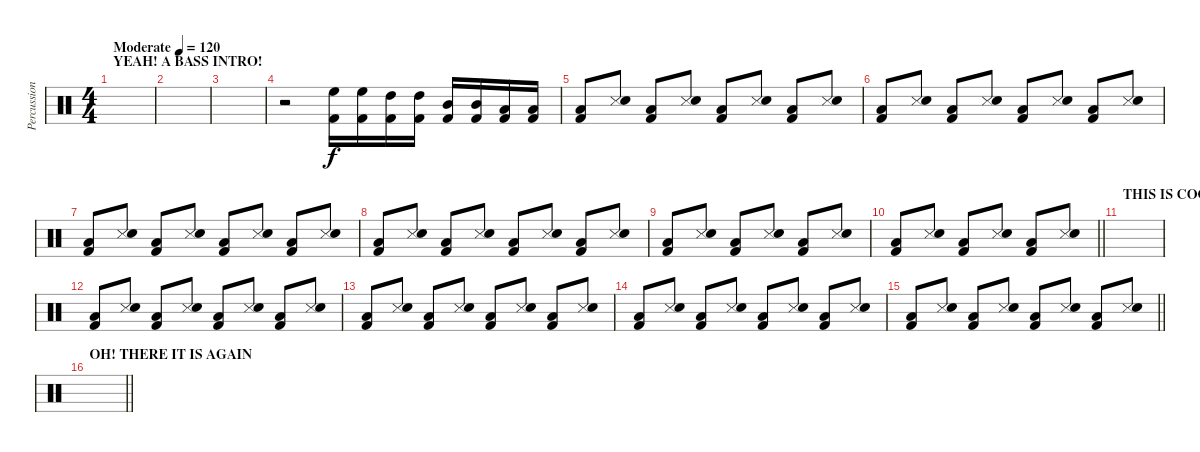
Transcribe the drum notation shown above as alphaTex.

\track ("Percussion" "Percussion") {instrument percussion}
\staff {score}
\articulation defaults
\ts (4 4)
\section ("" "YEAH! A BASS INTRO!")
\tempo (120 "Moderate")
\clef neutral
\ks c
|
|
|
r.2 ("High Floor Tom (hit)" "Kick (hit) 2").16 ("High Floor Tom (hit)" "Kick (hit) 2").16 ("High Tom (hit)" "Kick (hit) 2").16 ("High Tom (hit)" "Kick (hit) 2").16 ("Mid Tom (hit)" "Kick (hit) 2").16 ("Mid Tom (hit)" "Kick (hit) 2").16 ("Low Tom (hit)" "Kick (hit) 2").16 ("Low Tom (hit)" "Kick (hit) 2").16 |
("Low Tom (hit)" "Kick (hit) 2").8 ("Snare (side stick) 3" "Electric Snare (hit)").8 ("Low Tom (hit)" "Kick (hit) 2").8 ("Snare (side stick) 3" "Electric Snare (hit)").8 ("Low Tom (hit)" "Kick (hit) 2").8 ("Snare (side stick) 3" "Electric Snare (hit)").8 ("Low Tom (hit)" "Kick (hit) 2").8 ("Snare (side stick) 3" "Electric Snare (hit)").8 |
("Low Tom (hit)" "Kick (hit) 2").8 ("Snare (side stick) 3" "Electric Snare (hit)").8 ("Low Tom (hit)" "Kick (hit) 2").8 ("Snare (side stick) 3" "Electric Snare (hit)").8 ("Low Tom (hit)" "Kick (hit) 2").8 ("Snare (side stick) 3" "Electric Snare (hit)").8 ("Low Tom (hit)" "Kick (hit) 2").8 ("Snare (side stick) 3" "Electric Snare (hit)").8 |
("Low Tom (hit)" "Kick (hit) 2").8 ("Snare (side stick) 3" "Electric Snare (hit)").8 ("Low Tom (hit)" "Kick (hit) 2").8 ("Snare (side stick) 3" "Electric Snare (hit)").8 ("Low Tom (hit)" "Kick (hit) 2").8 ("Snare (side stick) 3" "Electric Snare (hit)").8 ("Low Tom (hit)" "Kick (hit) 2").8 ("Snare (side stick) 3" "Electric Snare (hit)").8 |
("Low Tom (hit)" "Kick (hit) 2").8 ("Snare (side stick) 3" "Electric Snare (hit)").8 ("Low Tom (hit)" "Kick (hit) 2").8 ("Snare (side stick) 3" "Electric Snare (hit)").8 ("Low Tom (hit)" "Kick (hit) 2").8 ("Snare (side stick) 3" "Electric Snare (hit)").8 ("Low Tom (hit)" "Kick (hit) 2").8 ("Snare (side stick) 3" "Electric Snare (hit)").8 |
("Low Tom (hit)" "Kick (hit) 2").8 ("Snare (side stick) 3" "Electric Snare (hit)").8 ("Low Tom (hit)" "Kick (hit) 2").8 ("Snare (side stick) 3" "Electric Snare (hit)").8 ("Low Tom (hit)" "Kick (hit) 2").8 ("Snare (side stick) 3" "Electric Snare (hit)").8 |
\barLineRight lightlight
("Low Tom (hit)" "Kick (hit) 2").8 ("Snare (side stick) 3" "Electric Snare (hit)").8 ("Low Tom (hit)" "Kick (hit) 2").8 ("Snare (side stick) 3" "Electric Snare (hit)").8 ("Low Tom (hit)" "Kick (hit) 2").8 ("Snare (side stick) 3" "Electric Snare (hit)").8 |
\section ("" "THIS IS COOL! RIGHT?")
|
("Low Tom (hit)" "Kick (hit) 2").8 ("Snare (side stick) 3" "Electric Snare (hit)").8 ("Low Tom (hit)" "Kick (hit) 2").8 ("Snare (side stick) 3" "Electric Snare (hit)").8 ("Low Tom (hit)" "Kick (hit) 2").8 ("Snare (side stick) 3" "Electric Snare (hit)").8 ("Low Tom (hit)" "Kick (hit) 2").8 ("Snare (side stick) 3" "Electric Snare (hit)").8 |
("Low Tom (hit)" "Kick (hit) 2").8 ("Snare (side stick) 3" "Electric Snare (hit)").8 ("Low Tom (hit)" "Kick (hit) 2").8 ("Snare (side stick) 3" "Electric Snare (hit)").8 ("Low Tom (hit)" "Kick (hit) 2").8 ("Snare (side stick) 3" "Electric Snare (hit)").8 ("Low Tom (hit)" "Kick (hit) 2").8 ("Snare (side stick) 3" "Electric Snare (hit)").8 |
("Low Tom (hit)" "Kick (hit) 2").8 ("Snare (side stick) 3" "Electric Snare (hit)").8 ("Low Tom (hit)" "Kick (hit) 2").8 ("Snare (side stick) 3" "Electric Snare (hit)").8 ("Low Tom (hit)" "Kick (hit) 2").8 ("Snare (side stick) 3" "Electric Snare (hit)").8 ("Low Tom (hit)" "Kick (hit) 2").8 ("Snare (side stick) 3" "Electric Snare (hit)").8 |
\barLineRight lightlight
("Low Tom (hit)" "Kick (hit) 2").8 ("Snare (side stick) 3" "Electric Snare (hit)").8 ("Low Tom (hit)" "Kick (hit) 2").8 ("Snare (side stick) 3" "Electric Snare (hit)").8 ("Low Tom (hit)" "Kick (hit) 2").8 ("Snare (side stick) 3" "Electric Snare (hit)").8 ("Low Tom (hit)" "Kick (hit) 2").8 ("Snare (side stick) 3" "Electric Snare (hit)").8 |
\section ("" "OH! THERE IT IS AGAIN")
\barLineRight lightlight
